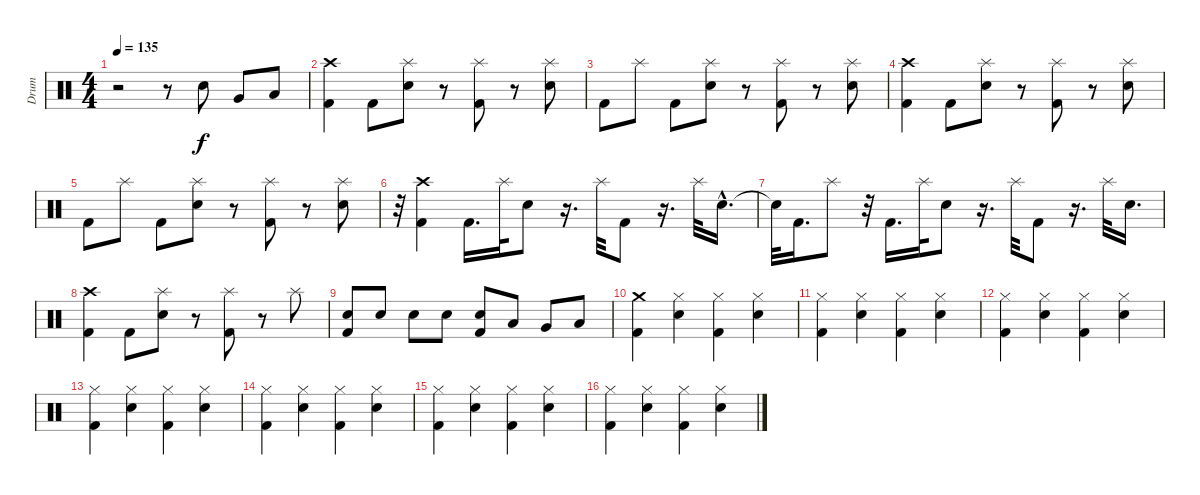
\track ("Drum" "Drum") {instrument percussion}
\staff {score}
\articulation defaults
\ts (4 4)
\tempo 135
\clef neutral
\ks c
r.2{dy f} r.8 "Electric Snare (hit)".8 "Very Low Tom (hit)".8 "Low Floor Tom (hit)".8 |
("Crash high (hit)" "Kick (hit) 2").4 "Kick (hit) 2".8 ("Splash (hit)" "Electric Snare (hit)").8 r.8 ("Splash (hit)" "Kick (hit) 2").8 r.8 ("Splash (hit)" "Electric Snare (hit)").8 |
"Kick (hit) 2".8 "Splash (hit)".8 "Kick (hit) 2".8 ("Splash (hit)" "Electric Snare (hit)").8 r.8 ("Splash (hit)" "Kick (hit) 2").8 r.8 ("Splash (hit)" "Electric Snare (hit)").8 |
("Crash high (hit)" "Kick (hit) 2").4 "Kick (hit) 2".8 ("Splash (hit)" "Electric Snare (hit)").8 r.8 ("Splash (hit)" "Kick (hit) 2").8 r.8 ("Splash (hit)" "Electric Snare (hit)").8 |
"Kick (hit) 2".8 "Splash (hit)".8 "Kick (hit) 2".8 ("Splash (hit)" "Electric Snare (hit)").8 r.8 ("Splash (hit)" "Kick (hit) 2").8 r.8 ("Splash (hit)" "Electric Snare (hit)").8 |
r.32 ("Crash high (hit)" "Kick (hit) 2").4 "Kick (hit) 2".16{d} "Splash (hit)".32 "Electric Snare (hit)".8 r.16{d} "Splash (hit)".32 "Kick (hit) 2".8 r.16{d} "Splash (hit)".32 "Electric Snare (hit)"{hac}.16{d} |
"Snare (hit)"{t}.32 "Kick (hit) 2".16{d} "Splash (hit)".8 r.32 "Kick (hit) 2".16{d} "Splash (hit)".32 "Electric Snare (hit)".8 r.16{d} "Splash (hit)".32 "Kick (hit) 2".8 r.16{d} "Splash (hit)".32 "Electric Snare (hit)".16{d} |
("Crash high (hit)" "Kick (hit) 2").4 "Kick (hit) 2".8 ("Splash (hit)" "Electric Snare (hit)").8 r.8 ("Splash (hit)" "Kick (hit) 2").8 r.8 "Splash (hit)".8 |
("Electric Snare (hit)" "Kick (hit) 2").8 "Electric Snare (hit)".8 "Electric Snare (hit)".8 "Electric Snare (hit)".8 ("Electric Snare (hit)" "Kick (hit) 2").8 "Low Tom (hit)".8 "Very Low Tom (hit)".8 "Low Floor Tom (hit)".8 |
("Kick (hit) 2" "Crash medium (hit)").4 ("Hi-Hat (closed)" "Electric Snare (hit)").4 ("Hi-Hat (closed)" "Kick (hit) 2").4 ("Hi-Hat (closed)" "Electric Snare (hit)").4 |
("Hi-Hat (closed)" "Kick (hit) 2").4 ("Hi-Hat (closed)" "Electric Snare (hit)").4 ("Kick (hit) 2" "Hi-Hat (closed)").4 ("Electric Snare (hit)" "Hi-Hat (closed)").4 |
("Hi-Hat (closed)" "Kick (hit) 2").4 ("Hi-Hat (closed)" "Electric Snare (hit)").4 ("Hi-Hat (closed)" "Kick (hit) 2").4 ("Hi-Hat (closed)" "Electric Snare (hit)").4 |
("Hi-Hat (closed)" "Kick (hit) 2").4 ("Hi-Hat (closed)" "Electric Snare (hit)").4 ("Kick (hit) 2" "Hi-Hat (closed)").4 ("Electric Snare (hit)" "Hi-Hat (closed)").4 |
("Hi-Hat (closed)" "Kick (hit) 2").4 ("Hi-Hat (closed)" "Electric Snare (hit)").4 ("Hi-Hat (closed)" "Kick (hit) 2").4 ("Hi-Hat (closed)" "Electric Snare (hit)").4 |
("Hi-Hat (closed)" "Kick (hit) 2").4 ("Hi-Hat (closed)" "Electric Snare (hit)").4 ("Kick (hit) 2" "Hi-Hat (closed)").4 ("Electric Snare (hit)" "Hi-Hat (closed)").4 |
("Hi-Hat (closed)" "Kick (hit) 2").4 ("Hi-Hat (closed)" "Electric Snare (hit)").4 ("Hi-Hat (closed)" "Kick (hit) 2").4 ("Hi-Hat (closed)" "Electric Snare (hit)").4
